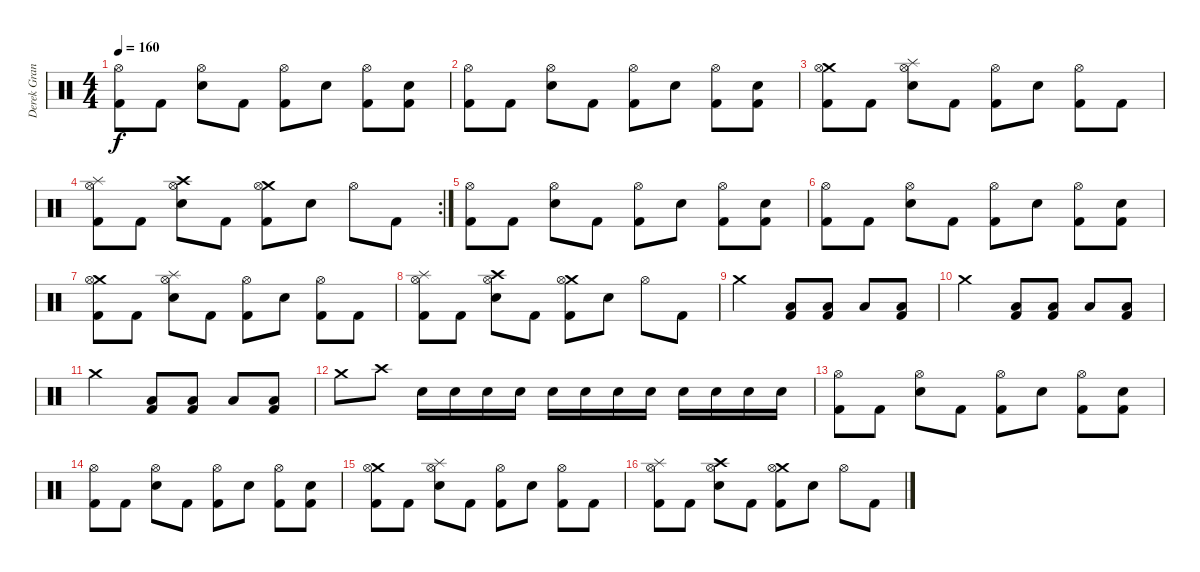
\track ("Derek Grant" "Derek Gran") {instrument percussion}
\staff {score}
\articulation defaults
\ts (4 4)
\tempo 160
\clef neutral
\ks c
("Hi-Hat (open)" "Kick (hit) 2").8{dy f} "Kick (hit) 2".8 ("Hi-Hat (open)" "Snare (hit) 2").8 "Kick (hit) 2".8 ("Hi-Hat (open)" "Kick (hit) 2").8 "Snare (hit) 2".8 ("Hi-Hat (open)" "Kick (hit) 2").8 ("Snare (hit) 2" "Kick (hit) 2").8 |
("Hi-Hat (open)" "Kick (hit) 2").8 "Kick (hit) 2".8 ("Hi-Hat (open)" "Snare (hit) 2").8 "Kick (hit) 2".8 ("Hi-Hat (open)" "Kick (hit) 2").8 "Snare (hit) 2".8 ("Hi-Hat (open)" "Kick (hit) 2").8 ("Snare (hit) 2" "Kick (hit) 2").8 |
("Crash medium (hit)" "Hi-Hat (open)" "Kick (hit) 2").8 "Kick (hit) 2".8 ("Splash (hit)" "Hi-Hat (open)" "Snare (hit) 2").8 "Kick (hit) 2".8 ("Hi-Hat (open)" "Kick (hit) 2").8 "Snare (hit) 2".8 ("Hi-Hat (open)" "Kick (hit) 2").8 "Kick (hit) 2".8 |
\rc 2
("Splash (hit)" "Hi-Hat (open)" "Kick (hit) 2").8 "Kick (hit) 2".8 ("Crash high (hit)" "Hi-Hat (open)" "Snare (hit) 2").8 "Kick (hit) 2".8 ("Crash medium (hit)" "Hi-Hat (open)" "Kick (hit) 2").8 "Snare (hit) 2".8 "Hi-Hat (open)".8 "Kick (hit) 2".8 |
("Hi-Hat (open)" "Kick (hit) 2").8 "Kick (hit) 2".8 ("Hi-Hat (open)" "Snare (hit) 2").8 "Kick (hit) 2".8 ("Hi-Hat (open)" "Kick (hit) 2").8 "Snare (hit) 2".8 ("Hi-Hat (open)" "Kick (hit) 2").8 ("Snare (hit) 2" "Kick (hit) 2").8 |
("Hi-Hat (open)" "Kick (hit) 2").8 "Kick (hit) 2".8 ("Hi-Hat (open)" "Snare (hit) 2").8 "Kick (hit) 2".8 ("Hi-Hat (open)" "Kick (hit) 2").8 "Snare (hit) 2".8 ("Hi-Hat (open)" "Kick (hit) 2").8 ("Snare (hit) 2" "Kick (hit) 2").8 |
("Crash medium (hit)" "Hi-Hat (open)" "Kick (hit) 2").8 "Kick (hit) 2".8 ("Splash (hit)" "Hi-Hat (open)" "Snare (hit) 2").8 "Kick (hit) 2".8 ("Hi-Hat (open)" "Kick (hit) 2").8 "Snare (hit) 2".8 ("Hi-Hat (open)" "Kick (hit) 2").8 "Kick (hit) 2".8 |
("Splash (hit)" "Hi-Hat (open)" "Kick (hit) 2").8 "Kick (hit) 2".8 ("Crash high (hit)" "Hi-Hat (open)" "Snare (hit) 2").8 "Kick (hit) 2".8 ("Crash medium (hit)" "Hi-Hat (open)" "Kick (hit) 2").8 "Snare (hit) 2".8 "Hi-Hat (open)".8 "Kick (hit) 2".8 |
"Crash medium (hit)".2 ("Low Floor Tom (hit)" "Kick (hit) 2").8 ("Low Floor Tom (hit)" "Kick (hit) 2").8 "Low Floor Tom (hit)".8 ("Low Floor Tom (hit)" "Kick (hit) 2").8 |
"Crash medium (hit)".2 ("Low Floor Tom (hit)" "Kick (hit) 2").8 ("Low Floor Tom (hit)" "Kick (hit) 2").8 "Low Floor Tom (hit)".8 ("Low Floor Tom (hit)" "Kick (hit) 2").8 |
"Crash medium (hit)".2 ("Low Floor Tom (hit)" "Kick (hit) 2").8 ("Low Floor Tom (hit)" "Kick (hit) 2").8 "Low Floor Tom (hit)".8 ("Low Floor Tom (hit)" "Kick (hit) 2").8 |
"Crash medium (hit)".8 "Crash high (hit)".8 "Snare (hit) 2".16 "Snare (hit) 2".16 "Snare (hit) 2".16 "Snare (hit) 2".16 "Snare (hit) 2".16 "Snare (hit) 2".16 "Snare (hit) 2".16 "Snare (hit) 2".16 "Snare (hit) 2".16 "Snare (hit) 2".16 "Snare (hit) 2".16 "Snare (hit) 2".16 |
("Hi-Hat (open)" "Kick (hit) 2").8 "Kick (hit) 2".8 ("Hi-Hat (open)" "Snare (hit) 2").8 "Kick (hit) 2".8 ("Hi-Hat (open)" "Kick (hit) 2").8 "Snare (hit) 2".8 ("Hi-Hat (open)" "Kick (hit) 2").8 ("Snare (hit) 2" "Kick (hit) 2").8 |
("Hi-Hat (open)" "Kick (hit) 2").8 "Kick (hit) 2".8 ("Hi-Hat (open)" "Snare (hit) 2").8 "Kick (hit) 2".8 ("Hi-Hat (open)" "Kick (hit) 2").8 "Snare (hit) 2".8 ("Hi-Hat (open)" "Kick (hit) 2").8 ("Snare (hit) 2" "Kick (hit) 2").8 |
("Crash medium (hit)" "Hi-Hat (open)" "Kick (hit) 2").8 "Kick (hit) 2".8 ("Splash (hit)" "Hi-Hat (open)" "Snare (hit) 2").8 "Kick (hit) 2".8 ("Hi-Hat (open)" "Kick (hit) 2").8 "Snare (hit) 2".8 ("Hi-Hat (open)" "Kick (hit) 2").8 "Kick (hit) 2".8 |
("Splash (hit)" "Hi-Hat (open)" "Kick (hit) 2").8 "Kick (hit) 2".8 ("Crash high (hit)" "Hi-Hat (open)" "Snare (hit) 2").8 "Kick (hit) 2".8 ("Crash medium (hit)" "Hi-Hat (open)" "Kick (hit) 2").8 "Snare (hit) 2".8 "Hi-Hat (open)".8 "Kick (hit) 2".8
